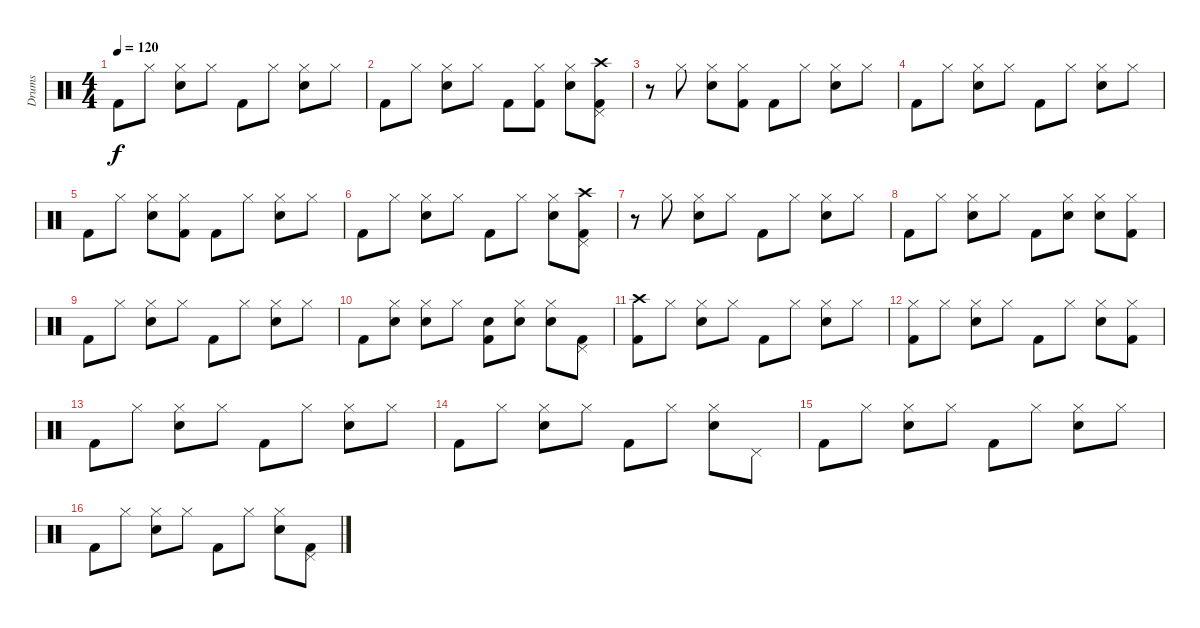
\track ("Drums" "Drums") {instrument percussion}
\staff {score}
\articulation defaults
\ts (4 4)
\tempo 120
\clef neutral
\ks c "Kick (hit) 2".8{dy f} "Hi-Hat (closed)".8
("Hi-Hat (closed)" "Snare (hit) 2").8 "Hi-Hat (closed)".8 "Kick (hit) 2".8 "Hi-Hat (closed)".8 ("Hi-Hat (closed)" "Snare (hit) 2").8 "Hi-Hat (closed)".8 |
"Kick (hit) 2".8 "Hi-Hat (closed)".8 ("Hi-Hat (closed)" "Snare (hit) 2").8 "Hi-Hat (closed)".8 "Kick (hit) 2".8 ("Hi-Hat (closed)" "Kick (hit) 2").8 ("Hi-Hat (closed)" "Snare (hit) 2").8 ("Pedal Hi-Hat (hit)" "Crash high (hit)" "Kick (hit) 2").8 |
r.8 "Hi-Hat (closed)".8 ("Hi-Hat (closed)" "Snare (hit) 2").8 ("Hi-Hat (closed)" "Kick (hit) 2").8 "Kick (hit) 2".8 "Hi-Hat (closed)".8 ("Hi-Hat (closed)" "Snare (hit) 2").8 "Hi-Hat (closed)".8 |
"Kick (hit) 2".8 "Hi-Hat (closed)".8 ("Hi-Hat (closed)" "Snare (hit) 2").8 "Hi-Hat (closed)".8 "Kick (hit) 2".8 "Hi-Hat (closed)".8 ("Hi-Hat (closed)" "Snare (hit) 2").8 "Hi-Hat (closed)".8 |
"Kick (hit) 2".8 "Hi-Hat (closed)".8 ("Hi-Hat (closed)" "Snare (hit) 2").8 ("Hi-Hat (closed)" "Kick (hit) 2").8 "Kick (hit) 2".8 "Hi-Hat (closed)".8 ("Hi-Hat (closed)" "Snare (hit) 2").8 "Hi-Hat (closed)".8 |
"Kick (hit) 2".8 "Hi-Hat (closed)".8 ("Hi-Hat (closed)" "Snare (hit) 2").8 "Hi-Hat (closed)".8 "Kick (hit) 2".8 "Hi-Hat (closed)".8 ("Hi-Hat (closed)" "Snare (hit) 2").8 ("Pedal Hi-Hat (hit)" "Crash high (hit)" "Kick (hit) 2").8 |
r.8 "Hi-Hat (closed)".8 ("Hi-Hat (closed)" "Snare (hit) 2").8 "Hi-Hat (closed)".8 "Kick (hit) 2".8 "Hi-Hat (closed)".8 ("Hi-Hat (closed)" "Snare (hit) 2").8 "Hi-Hat (closed)".8 |
"Kick (hit) 2".8 "Hi-Hat (closed)".8 ("Hi-Hat (closed)" "Snare (hit) 2").8 "Hi-Hat (closed)".8 "Kick (hit) 2".8 ("Hi-Hat (closed)" "Snare (hit) 2").8 ("Hi-Hat (closed)" "Snare (hit) 2").8 ("Hi-Hat (closed)" "Kick (hit) 2").8 |
"Kick (hit) 2".8 "Hi-Hat (closed)".8 ("Hi-Hat (closed)" "Snare (hit) 2").8 "Hi-Hat (closed)".8 "Kick (hit) 2".8 "Hi-Hat (closed)".8 ("Hi-Hat (closed)" "Snare (hit) 2").8 "Hi-Hat (closed)".8 |
"Kick (hit) 2".8 ("Hi-Hat (closed)" "Snare (hit) 2").8 ("Hi-Hat (closed)" "Snare (hit) 2").8 "Hi-Hat (closed)".8 ("Snare (hit) 2" "Kick (hit) 2").8 ("Hi-Hat (closed)" "Snare (hit) 2").8 ("Hi-Hat (closed)" "Snare (hit) 2").8 ("Pedal Hi-Hat (hit)" "Kick (hit) 2").8 |
("Crash high (hit)" "Kick (hit) 2").8 "Hi-Hat (closed)".8 ("Hi-Hat (closed)" "Snare (hit) 2").8 "Hi-Hat (closed)".8 "Kick (hit) 2".8 "Hi-Hat (closed)".8 ("Hi-Hat (closed)" "Snare (hit) 2").8 "Hi-Hat (closed)".8 |
("Hi-Hat (closed)" "Kick (hit) 2").8 "Hi-Hat (closed)".8 ("Hi-Hat (closed)" "Snare (hit) 2").8 "Hi-Hat (closed)".8 "Kick (hit) 2".8 "Hi-Hat (closed)".8 ("Hi-Hat (closed)" "Snare (hit) 2").8 ("Hi-Hat (closed)" "Kick (hit) 2").8 |
"Kick (hit) 2".8 "Hi-Hat (closed)".8 ("Hi-Hat (closed)" "Snare (hit) 2").8 "Hi-Hat (closed)".8 "Kick (hit) 2".8 "Hi-Hat (closed)".8 ("Hi-Hat (closed)" "Snare (hit) 2").8 "Hi-Hat (closed)".8 |
"Kick (hit) 2".8 "Hi-Hat (closed)".8 ("Hi-Hat (closed)" "Snare (hit) 2").8 "Hi-Hat (closed)".8 "Kick (hit) 2".8 "Hi-Hat (closed)".8 ("Hi-Hat (closed)" "Snare (hit) 2").8 "Pedal Hi-Hat (hit)".8 |
"Kick (hit) 2".8 "Hi-Hat (closed)".8 ("Hi-Hat (closed)" "Snare (hit) 2").8 "Hi-Hat (closed)".8 "Kick (hit) 2".8 "Hi-Hat (closed)".8 ("Hi-Hat (closed)" "Snare (hit) 2").8 "Hi-Hat (closed)".8 |
"Kick (hit) 2".8 "Hi-Hat (closed)".8 ("Hi-Hat (closed)" "Snare (hit) 2").8 "Hi-Hat (closed)".8 "Kick (hit) 2".8 "Hi-Hat (closed)".8 ("Hi-Hat (closed)" "Snare (hit) 2").8 ("Pedal Hi-Hat (hit)" "Kick (hit) 2").8
